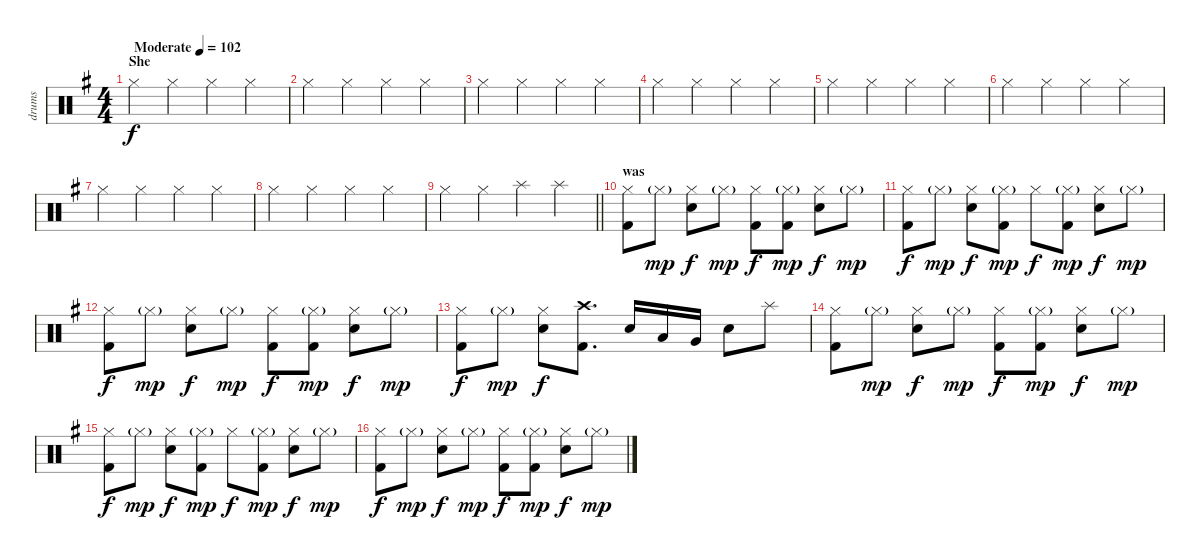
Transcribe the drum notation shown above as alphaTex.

\track ("drums" "drums") {instrument percussion}
\staff {score}
\articulation defaults
\ts (4 4)
\section ("" "She")
\tempo (102 "Moderate")
\clef neutral
\ks eminor "Hi-Hat (closed)".4{dy f} "Hi-Hat (closed)".4 "Hi-Hat (closed)".4 "Hi-Hat (closed)".4
|
"Hi-Hat (closed)".4 "Hi-Hat (closed)".4 "Hi-Hat (closed)".4 "Hi-Hat (closed)".4 |
"Hi-Hat (closed)".4 "Hi-Hat (closed)".4 "Hi-Hat (closed)".4 "Hi-Hat (closed)".4 |
"Hi-Hat (closed)".4 "Hi-Hat (closed)".4 "Hi-Hat (closed)".4 "Hi-Hat (closed)".4 |
"Hi-Hat (closed)".4 "Hi-Hat (closed)".4 "Hi-Hat (closed)".4 "Hi-Hat (closed)".4 |
"Hi-Hat (closed)".4 "Hi-Hat (closed)".4 "Hi-Hat (closed)".4 "Hi-Hat (closed)".4 |
"Hi-Hat (closed)".4 "Hi-Hat (closed)".4 "Hi-Hat (closed)".4 "Hi-Hat (closed)".4 |
"Hi-Hat (closed)".4 "Hi-Hat (closed)".4 "Hi-Hat (closed)".4 "Hi-Hat (closed)".4 |
\barLineRight lightlight "Hi-Hat (closed)".4 "Hi-Hat (closed)".4 "Splash (hit)".4 "Splash (hit)".4
|
\section ("" "was")
("Hi-Hat (closed)" "Kick (hit) 2").8 "Hi-Hat (closed)"{g}.8{dy mp} ("Hi-Hat (closed)" "Snare (hit) 2").8{dy f} "Hi-Hat (closed)"{g}.8{dy mp} ("Hi-Hat (closed)" "Kick (hit) 2").8{dy f} ("Hi-Hat (closed)"{g} "Kick (hit) 2").8{dy mp} ("Hi-Hat (closed)" "Snare (hit) 2").8{dy f} "Hi-Hat (closed)"{g}.8{dy mp} |
("Hi-Hat (closed)" "Kick (hit) 2").8{dy f} "Hi-Hat (closed)"{g}.8{dy mp} ("Hi-Hat (closed)" "Snare (hit) 2").8{dy f} ("Hi-Hat (closed)"{g} "Kick (hit) 2").8{dy mp} "Hi-Hat (closed)".8{dy f} ("Hi-Hat (closed)"{g} "Kick (hit) 2").8{dy mp} ("Hi-Hat (closed)" "Snare (hit) 2").8{dy f} "Hi-Hat (closed)"{g}.8{dy mp} |
("Hi-Hat (closed)" "Kick (hit) 2").8{dy f} "Hi-Hat (closed)"{g}.8{dy mp} ("Hi-Hat (closed)" "Snare (hit) 2").8{dy f} "Hi-Hat (closed)"{g}.8{dy mp} ("Hi-Hat (closed)" "Kick (hit) 2").8{dy f} ("Hi-Hat (closed)"{g} "Kick (hit) 2").8{dy mp} ("Hi-Hat (closed)" "Snare (hit) 2").8{dy f} "Hi-Hat (closed)"{g}.8{dy mp} |
("Hi-Hat (closed)" "Kick (hit) 2").8{dy f} "Hi-Hat (closed)"{g}.8{dy mp} ("Hi-Hat (closed)" "Snare (hit) 2").8{dy f} ("Crash high (hit)" "Kick (hit) 2").8{d} "Snare (hit) 2".16 "Low Tom (hit)".16 "Very Low Tom (hit)".16 "Snare (hit) 2".8 "Splash (hit)".8 |
("Hi-Hat (closed)" "Kick (hit) 2").8 "Hi-Hat (closed)"{g}.8{dy mp} ("Hi-Hat (closed)" "Snare (hit) 2").8{dy f} "Hi-Hat (closed)"{g}.8{dy mp} ("Hi-Hat (closed)" "Kick (hit) 2").8{dy f} ("Hi-Hat (closed)"{g} "Kick (hit) 2").8{dy mp} ("Hi-Hat (closed)" "Snare (hit) 2").8{dy f} "Hi-Hat (closed)"{g}.8{dy mp} |
("Hi-Hat (closed)" "Kick (hit) 2").8{dy f} "Hi-Hat (closed)"{g}.8{dy mp} ("Hi-Hat (closed)" "Snare (hit) 2").8{dy f} ("Hi-Hat (closed)"{g} "Kick (hit) 2").8{dy mp} "Hi-Hat (closed)".8{dy f} ("Hi-Hat (closed)"{g} "Kick (hit) 2").8{dy mp} ("Hi-Hat (closed)" "Snare (hit) 2").8{dy f} "Hi-Hat (closed)"{g}.8{dy mp} |
("Hi-Hat (closed)" "Kick (hit) 2").8{dy f} "Hi-Hat (closed)"{g}.8{dy mp} ("Hi-Hat (closed)" "Snare (hit) 2").8{dy f} "Hi-Hat (closed)"{g}.8{dy mp} ("Hi-Hat (closed)" "Kick (hit) 2").8{dy f} ("Hi-Hat (closed)"{g} "Kick (hit) 2").8{dy mp} ("Hi-Hat (closed)" "Snare (hit) 2").8{dy f} "Hi-Hat (closed)"{g}.8{dy mp}
